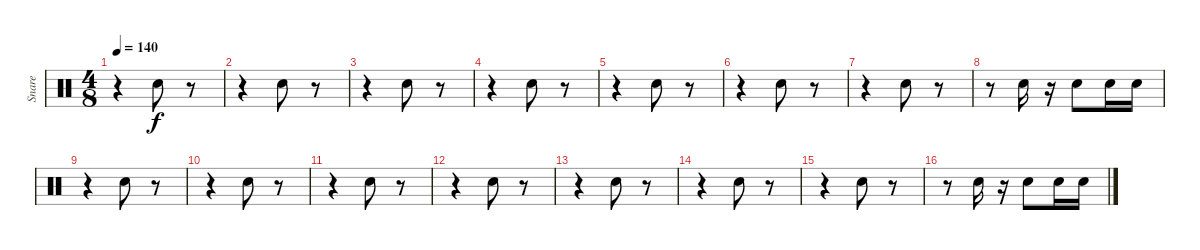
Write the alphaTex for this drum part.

\track ("Snare" "Snare") {instrument percussion}
\staff {score}
\articulation defaults
\ts (4 8)
\tempo 140
\clef neutral
\ks c
r.4{dy f} "Snare (hit) 2".8 r.8 |
r.4 "Snare (hit) 2".8 r.8 |
r.4 "Snare (hit) 2".8 r.8 |
r.4 "Snare (hit) 2".8 r.8 |
r.4 "Snare (hit) 2".8 r.8 |
r.4 "Snare (hit) 2".8 r.8 |
r.4 "Snare (hit) 2".8 r.8 |
r.8 "Snare (hit) 2".16 r.16 "Snare (hit) 2".8 "Snare (hit) 2".16 "Snare (hit) 2".16 |
r.4 "Snare (hit) 2".8 r.8 |
r.4 "Snare (hit) 2".8 r.8 |
r.4 "Snare (hit) 2".8 r.8 |
r.4 "Snare (hit) 2".8 r.8 |
r.4 "Snare (hit) 2".8 r.8 |
r.4 "Snare (hit) 2".8 r.8 |
r.4 "Snare (hit) 2".8 r.8 |
r.8 "Snare (hit) 2".16 r.16 "Snare (hit) 2".8 "Snare (hit) 2".16 "Snare (hit) 2".16
